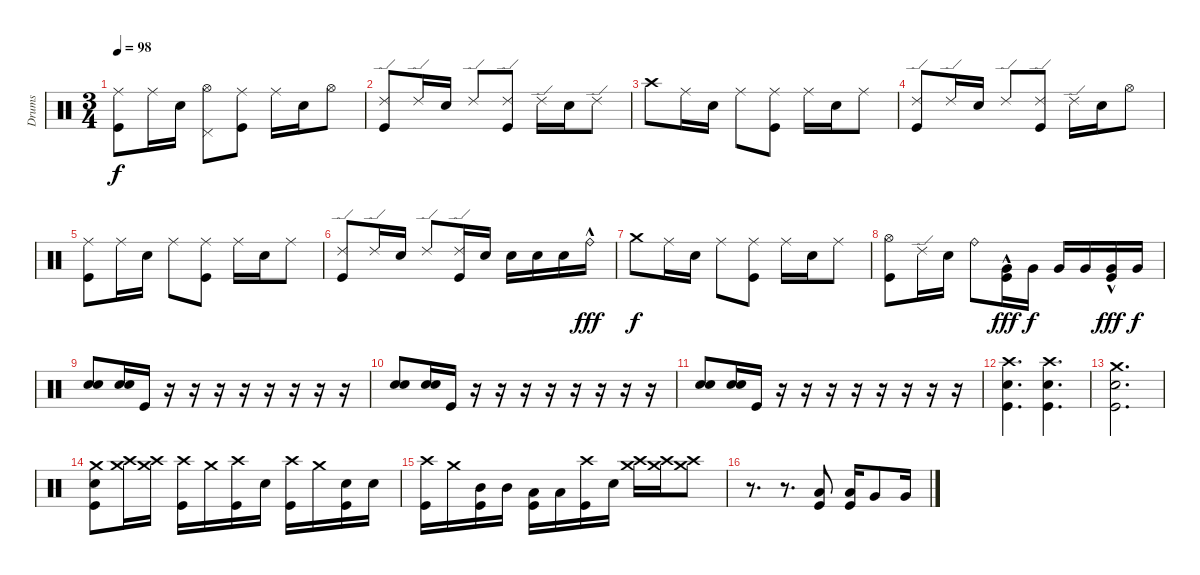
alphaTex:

\track ("Drums" "Drums") {instrument percussion}
\staff {score}
\articulation defaults
\ts (3 4)
\tempo 98
\clef neutral
\ks c
("Ride (middle)" "Kick (hit)").8{dy f} "Ride (middle)".16 "Snare (hit) 2".16 ("Hi-Hat (open)" "Pedal Hi-Hat (hit)").8 ("Ride (middle)" "Kick (hit)").8 "Ride (middle)".16 "Snare (hit) 2".16 "Hi-Hat (open)".8 |
("Ride (edge) 2" "Kick (hit)").8 "Ride (edge) 2".16 "Snare (hit) 2".16 "Ride (edge) 2".8 ("Ride (edge) 2" "Kick (hit)").8 "Ride (edge) 2".16 "Snare (hit) 2".16 "Ride (edge) 2".8 |
"Crash high (hit)".8 "Ride (middle)".16 "Snare (hit) 2".16 "Ride (middle)".8 ("Ride (middle)" "Kick (hit)").8 "Ride (middle)".16 "Snare (hit) 2".16 "Ride (middle)".8 |
("Ride (edge) 2" "Kick (hit)").8 "Ride (edge) 2".16 "Snare (hit) 2".16 "Ride (edge) 2".8 ("Ride (edge) 2" "Kick (hit)").8 "Ride (edge) 2".16 "Snare (hit) 2".16 "Hi-Hat (open)".8 |
("Ride (middle)" "Kick (hit)").8 "Ride (middle)".16 "Snare (hit) 2".16 "Ride (middle)".8 ("Ride (middle)" "Kick (hit)").8 "Ride (middle)".16 "Snare (hit) 2".16 "Ride (middle)".8 |
("Ride (edge) 2" "Kick (hit)").8 "Ride (edge) 2".16 "Snare (hit) 2".16 "Ride (edge) 2".8 ("Ride (edge) 2" "Kick (hit)").16 "Snare (hit) 2".16 "Snare (hit) 2".16 "Snare (hit) 2".16 "Snare (hit) 2".16 "Ride (bell)"{hac}.16{dy fff} |
"Crash medium (hit)".8{dy f} "Ride (middle)".16 "Snare (hit) 2".16 "Ride (middle)".8 ("Ride (middle)" "Kick (hit)").8 "Ride (middle)".16 "Snare (hit) 2".16 "Ride (middle)".8 |
("Hi-Hat (open)" "Kick (hit)").8 "Ride (edge) 2".16 "Snare (hit) 2".16 "Ride (bell)".8 ("Very Low Tom (hit)"{hac} "Kick (hit)").16{dy fff} "Very Low Tom (hit)".16{dy f} "Very Low Tom (hit)".16 "Very Low Tom (hit)".16 ("Very Low Tom (hit)"{hac} "Kick (hit)").16{dy fff} "Very Low Tom (hit)".16{dy f} |
("Snare (hit) 2" "Snare (hit) 2").8 ("Snare (hit) 2" "Snare (hit) 2").16 "Kick (hit)".16 r.16 r.16 r.16 r.16 r.16 r.16 r.16 r.16 |
("Snare (hit) 2" "Snare (hit) 2").8 ("Snare (hit) 2" "Snare (hit) 2").16 "Kick (hit)".16 r.16 r.16 r.16 r.16 r.16 r.16 r.16 r.16 |
("Snare (hit) 2" "Snare (hit) 2").8 ("Snare (hit) 2" "Snare (hit) 2").16 "Kick (hit)".16 r.16 r.16 r.16 r.16 r.16 r.16 r.16 r.16 |
("Crash high (hit)" "Kick (hit)" "Snare (hit) 2").4{d} ("Crash high (hit)" "Kick (hit)" "Snare (hit) 2").4{d} |
("Crash medium (hit)" "Kick (hit)" "Snare (hit) 2").2{d} |
("Crash medium (hit)" "Kick (hit)" "Snare (hit) 2").8 ("Crash high (hit)" "Crash medium (hit)").16 ("Crash high (hit)" "Crash medium (hit)").16 ("Kick (hit)" "Crash high (hit)").16 "Crash medium (hit)".16 ("Kick (hit)" "Crash high (hit)").16 "Snare (hit) 2".16 ("Kick (hit)" "Crash high (hit)").16 "Crash medium (hit)".16 ("Kick (hit)" "Snare (hit) 2").16 "Snare (hit) 2".16 |
("Kick (hit)" "Crash high (hit)").16 "Crash medium (hit)".16 ("Kick (hit)" "Mid Tom (hit)").16 "Mid Tom (hit)".16 ("Kick (hit)" "Low Floor Tom (hit)").16 "Low Floor Tom (hit)".16 ("Kick (hit)" "Crash high (hit)").16 "Snare (hit) 2".16 ("Crash high (hit)" "Crash medium (hit)").16 ("Crash high (hit)" "Crash medium (hit)").16 ("Crash high (hit)" "Crash medium (hit)").8 |
r.8{d} r.8{d} ("Kick (hit)" "Low Floor Tom (hit)").8 ("Kick (hit)" "Low Floor Tom (hit)").16 "Very Low Tom (hit)".8 "Very Low Tom (hit)".16
